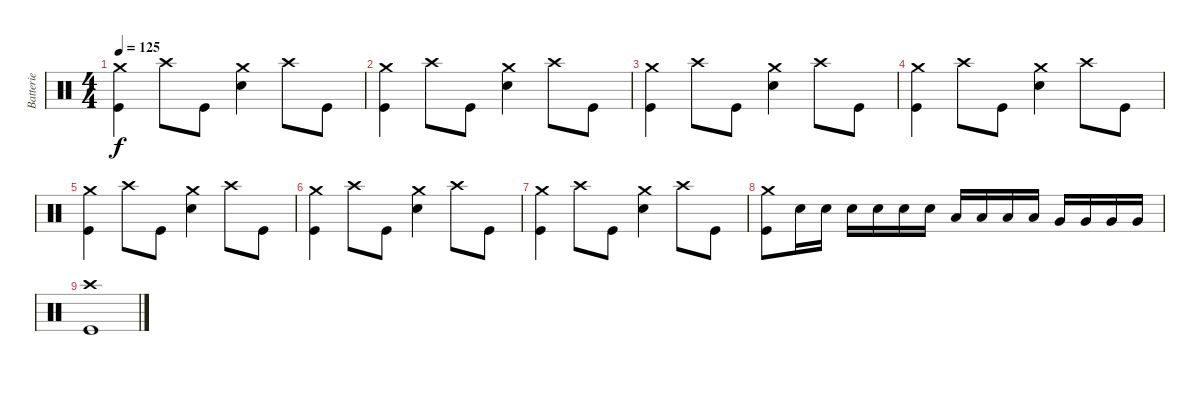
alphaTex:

\track ("Batterie" "Batterie") {instrument percussion}
\staff {score}
\articulation defaults
\ts (4 4)
\tempo 125
\clef neutral
\ks c
("Crash medium (hit)" "Kick (hit)").4{dy f} "Crash high (hit)".8 "Kick (hit)".8 ("Crash medium (hit)" "Electric Snare (hit)").4 "Crash high (hit)".8 "Kick (hit)".8 |
("Crash medium (hit)" "Kick (hit)").4 "Crash high (hit)".8 "Kick (hit)".8 ("Crash medium (hit)" "Electric Snare (hit)").4 "Crash high (hit)".8 "Kick (hit)".8 |
("Crash medium (hit)" "Kick (hit)").4 "Crash high (hit)".8 "Kick (hit)".8 ("Crash medium (hit)" "Electric Snare (hit)").4 "Crash high (hit)".8 "Kick (hit)".8 |
("Crash medium (hit)" "Kick (hit)").4 "Crash high (hit)".8 "Kick (hit)".8 ("Crash medium (hit)" "Electric Snare (hit)").4 "Crash high (hit)".8 "Kick (hit)".8 |
("Crash medium (hit)" "Kick (hit)").4 "Crash high (hit)".8 "Kick (hit)".8 ("Crash medium (hit)" "Electric Snare (hit)").4 "Crash high (hit)".8 "Kick (hit)".8 |
("Crash medium (hit)" "Kick (hit)").4 "Crash high (hit)".8 "Kick (hit)".8 ("Crash medium (hit)" "Electric Snare (hit)").4 "Crash high (hit)".8 "Kick (hit)".8 |
("Crash medium (hit)" "Kick (hit)").4 "Crash high (hit)".8 "Kick (hit)".8 ("Crash medium (hit)" "Electric Snare (hit)").4 "Crash high (hit)".8 "Kick (hit)".8 |
("Crash medium (hit)" "Kick (hit)").8 "Electric Snare (hit)".16 "Electric Snare (hit)".16 "Electric Snare (hit)".16 "Electric Snare (hit)".16 "Electric Snare (hit)".16 "Electric Snare (hit)".16 "Low Tom (hit)".16 "Low Tom (hit)".16 "Low Tom (hit)".16 "Low Tom (hit)".16 "Very Low Tom (hit)".16 "Very Low Tom (hit)".16 "Very Low Tom (hit)".16 "Very Low Tom (hit)".16 |
("Crash high (hit)" "Kick (hit)").1
